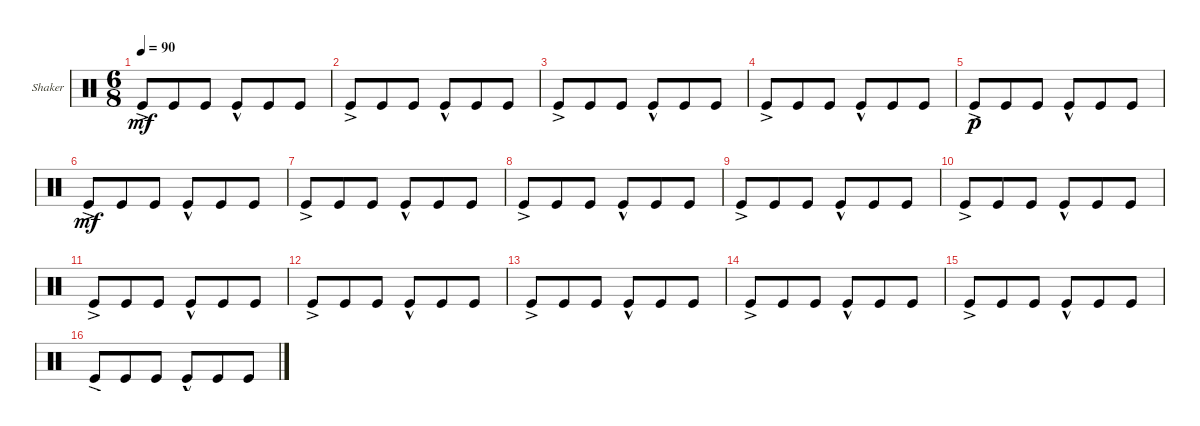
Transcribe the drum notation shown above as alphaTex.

\defaultSystemsLayout 4
\bracketExtendMode groupsimilarinstruments
\firstSystemTrackNameOrientation horizontal
\otherSystemsTrackNameOrientation horizontal
\track ("Shaker" "Shaker") {multiBarRest instrument percussion}
\staff {score}
\articulation defaults
\ts (6 8)
\tempo 90
\clef neutral
\ks c "Kick (hit)"{ac}.8{dy mf} "Kick (hit)".8 "Kick (hit)".8 "Kick (hit)"{hac}.8 "Kick (hit)".8 "Kick (hit)".8
|
"Kick (hit)"{ac}.8 "Kick (hit)".8 "Kick (hit)".8 "Kick (hit)"{hac}.8 "Kick (hit)".8 "Kick (hit)".8 |
"Kick (hit)"{ac}.8 "Kick (hit)".8 "Kick (hit)".8 "Kick (hit)"{hac}.8 "Kick (hit)".8 "Kick (hit)".8 |
"Kick (hit)"{ac}.8 "Kick (hit)".8 "Kick (hit)".8 "Kick (hit)"{hac}.8 "Kick (hit)".8 "Kick (hit)".8 |
"Kick (hit)"{ac}.8{dy p} "Kick (hit)".8 "Kick (hit)".8 "Kick (hit)"{hac}.8 "Kick (hit)".8 "Kick (hit)".8 |
"Kick (hit)"{ac}.8{dy mf} "Kick (hit)".8 "Kick (hit)".8 "Kick (hit)"{hac}.8 "Kick (hit)".8 "Kick (hit)".8 |
"Kick (hit)"{ac}.8 "Kick (hit)".8 "Kick (hit)".8 "Kick (hit)"{hac}.8 "Kick (hit)".8 "Kick (hit)".8 |
"Kick (hit)"{ac}.8 "Kick (hit)".8 "Kick (hit)".8 "Kick (hit)"{hac}.8 "Kick (hit)".8 "Kick (hit)".8 |
"Kick (hit)"{ac}.8 "Kick (hit)".8 "Kick (hit)".8 "Kick (hit)"{hac}.8 "Kick (hit)".8 "Kick (hit)".8 |
"Kick (hit)"{ac}.8 "Kick (hit)".8 "Kick (hit)".8 "Kick (hit)"{hac}.8 "Kick (hit)".8 "Kick (hit)".8 |
"Kick (hit)"{ac}.8 "Kick (hit)".8 "Kick (hit)".8 "Kick (hit)"{hac}.8 "Kick (hit)".8 "Kick (hit)".8 |
"Kick (hit)"{ac}.8 "Kick (hit)".8 "Kick (hit)".8 "Kick (hit)"{hac}.8 "Kick (hit)".8 "Kick (hit)".8 |
"Kick (hit)"{ac}.8 "Kick (hit)".8 "Kick (hit)".8 "Kick (hit)"{hac}.8 "Kick (hit)".8 "Kick (hit)".8 |
"Kick (hit)"{ac}.8 "Kick (hit)".8 "Kick (hit)".8 "Kick (hit)"{hac}.8 "Kick (hit)".8 "Kick (hit)".8 |
"Kick (hit)"{ac}.8 "Kick (hit)".8 "Kick (hit)".8 "Kick (hit)"{hac}.8 "Kick (hit)".8 "Kick (hit)".8 |
"Kick (hit)"{ac}.8 "Kick (hit)".8 "Kick (hit)".8 "Kick (hit)"{hac}.8 "Kick (hit)".8 "Kick (hit)".8
